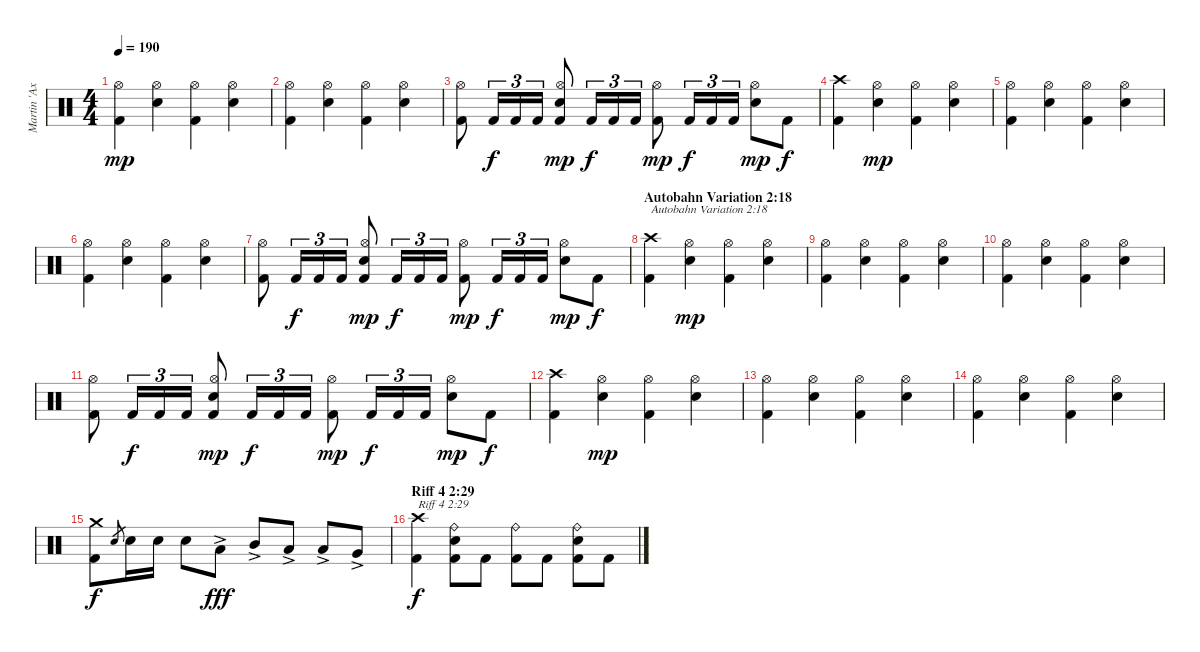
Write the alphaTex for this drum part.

\track ("Martin 'Axe' Axenroth" "Martin 'Ax") {instrument percussion}
\staff {score}
\articulation defaults
\ts (4 4)
\tempo 190
\clef neutral
\ks c
("Kick (hit) 2" "Hi-Hat (open)").4{dy mp} ("Electric Snare (hit)" "Hi-Hat (open)").4 ("Kick (hit) 2" "Hi-Hat (open)").4 ("Electric Snare (hit)" "Hi-Hat (open)").4 |
("Kick (hit) 2" "Hi-Hat (open)").4 ("Electric Snare (hit)" "Hi-Hat (open)").4 ("Kick (hit) 2" "Hi-Hat (open)").4 ("Electric Snare (hit)" "Hi-Hat (open)").4 |
("Kick (hit) 2" "Hi-Hat (open)").8 "Kick (hit) 2".16{tu (3 2) dy f} "Kick (hit) 2".16{tu (3 2)} "Kick (hit) 2".16{tu (3 2)} ("Kick (hit) 2" "Electric Snare (hit)" "Hi-Hat (open)").8{dy mp} "Kick (hit) 2".16{tu (3 2) dy f} "Kick (hit) 2".16{tu (3 2)} "Kick (hit) 2".16{tu (3 2)} ("Kick (hit) 2" "Hi-Hat (open)").8{dy mp} "Kick (hit) 2".16{tu (3 2) dy f} "Kick (hit) 2".16{tu (3 2)} "Kick (hit) 2".16{tu (3 2)} ("Electric Snare (hit)" "Hi-Hat (open)").8{dy mp} "Kick (hit) 2".8{dy f} |
("Kick (hit) 2" "Crash high (hit)").4 ("Electric Snare (hit)" "Hi-Hat (open)").4{dy mp} ("Kick (hit) 2" "Hi-Hat (open)").4 ("Electric Snare (hit)" "Hi-Hat (open)").4 |
("Kick (hit) 2" "Hi-Hat (open)").4 ("Electric Snare (hit)" "Hi-Hat (open)").4 ("Kick (hit) 2" "Hi-Hat (open)").4 ("Electric Snare (hit)" "Hi-Hat (open)").4 |
("Kick (hit) 2" "Hi-Hat (open)").4 ("Electric Snare (hit)" "Hi-Hat (open)").4 ("Kick (hit) 2" "Hi-Hat (open)").4 ("Electric Snare (hit)" "Hi-Hat (open)").4 |
("Kick (hit) 2" "Hi-Hat (open)").8 "Kick (hit) 2".16{tu (3 2) dy f} "Kick (hit) 2".16{tu (3 2)} "Kick (hit) 2".16{tu (3 2)} ("Kick (hit) 2" "Electric Snare (hit)" "Hi-Hat (open)").8{dy mp} "Kick (hit) 2".16{tu (3 2) dy f} "Kick (hit) 2".16{tu (3 2)} "Kick (hit) 2".16{tu (3 2)} ("Kick (hit) 2" "Hi-Hat (open)").8{dy mp} "Kick (hit) 2".16{tu (3 2) dy f} "Kick (hit) 2".16{tu (3 2)} "Kick (hit) 2".16{tu (3 2)} ("Electric Snare (hit)" "Hi-Hat (open)").8{dy mp} "Kick (hit) 2".8{dy f} |
\section ("" "Autobahn Variation 2:18")
("Kick (hit) 2" "Crash high (hit)").4{txt "Autobahn Variation 2:18"} ("Electric Snare (hit)" "Hi-Hat (open)").4{dy mp} ("Kick (hit) 2" "Hi-Hat (open)").4 ("Electric Snare (hit)" "Hi-Hat (open)").4 |
("Kick (hit) 2" "Hi-Hat (open)").4 ("Electric Snare (hit)" "Hi-Hat (open)").4 ("Kick (hit) 2" "Hi-Hat (open)").4 ("Electric Snare (hit)" "Hi-Hat (open)").4 |
("Kick (hit) 2" "Hi-Hat (open)").4 ("Electric Snare (hit)" "Hi-Hat (open)").4 ("Kick (hit) 2" "Hi-Hat (open)").4 ("Electric Snare (hit)" "Hi-Hat (open)").4 |
("Kick (hit) 2" "Hi-Hat (open)").8 "Kick (hit) 2".16{tu (3 2) dy f} "Kick (hit) 2".16{tu (3 2)} "Kick (hit) 2".16{tu (3 2)} ("Kick (hit) 2" "Electric Snare (hit)" "Hi-Hat (open)").8{dy mp} "Kick (hit) 2".16{tu (3 2) dy f} "Kick (hit) 2".16{tu (3 2)} "Kick (hit) 2".16{tu (3 2)} ("Kick (hit) 2" "Hi-Hat (open)").8{dy mp} "Kick (hit) 2".16{tu (3 2) dy f} "Kick (hit) 2".16{tu (3 2)} "Kick (hit) 2".16{tu (3 2)} ("Electric Snare (hit)" "Hi-Hat (open)").8{dy mp} "Kick (hit) 2".8{dy f} |
("Kick (hit) 2" "Crash high (hit)").4 ("Electric Snare (hit)" "Hi-Hat (open)").4{dy mp} ("Kick (hit) 2" "Hi-Hat (open)").4 ("Electric Snare (hit)" "Hi-Hat (open)").4 |
("Kick (hit) 2" "Hi-Hat (open)").4 ("Electric Snare (hit)" "Hi-Hat (open)").4 ("Kick (hit) 2" "Hi-Hat (open)").4 ("Electric Snare (hit)" "Hi-Hat (open)").4 |
("Kick (hit) 2" "Hi-Hat (open)").4 ("Electric Snare (hit)" "Hi-Hat (open)").4 ("Kick (hit) 2" "Hi-Hat (open)").4 ("Electric Snare (hit)" "Hi-Hat (open)").4 |
("Kick (hit) 2" "Crash medium (hit)").8{dy f} "Electric Snare (hit)".8{gr} "Electric Snare (hit)".16 "Electric Snare (hit)".16 "Electric Snare (hit)".8 "Low Tom (hit)"{ac}.8{dy fff} "Mid Tom (hit)"{ac}.8 "Low Tom (hit)"{ac}.8 "Low Tom (hit)"{ac}.8 "Very Low Tom (hit)"{ac}.8 |
\section ("" "Riff 4 2:29")
("Kick (hit) 2" "Crash high (hit)").4{txt "Riff 4 2:29" dy f} ("Kick (hit) 2" "Electric Snare (hit)" "Ride (bell)").8 "Kick (hit) 2".8 ("Kick (hit) 2" "Ride (bell)").8 "Kick (hit) 2".8 ("Kick (hit) 2" "Electric Snare (hit)" "Ride (bell)").8 "Kick (hit) 2".8
